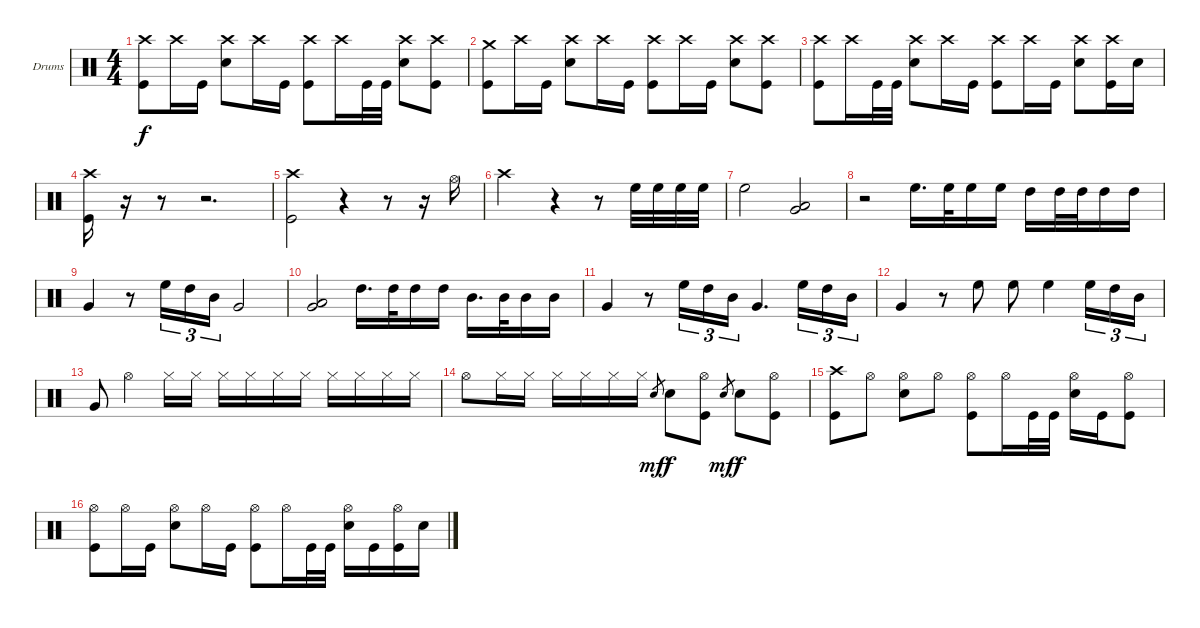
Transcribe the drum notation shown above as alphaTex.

\bracketExtendMode groupsimilarinstruments
\firstSystemTrackNameOrientation horizontal
\otherSystemsTrackNameOrientation horizontal
\track ("Drumkit" "Drums") {instrument percussion}
\staff {score}
\articulation defaults
\ts (4 4)
\tempo (80 hide)
\clef neutral
\ks c
("Crash high (hit)" "Kick (hit)").8{dy f} "Crash high (hit)".16 "Kick (hit)".16 ("Crash high (hit)" "Snare (hit) 2").8 "Crash high (hit)".16 "Kick (hit)".16 ("Crash high (hit)" "Kick (hit)").8 "Crash high (hit)".16 "Kick (hit)".32 "Kick (hit)".32 ("Crash high (hit)" "Snare (hit) 2").8 ("Crash high (hit)" "Kick (hit)").8 |
("Crash medium (hit)" "Kick (hit)").8 "Crash high (hit)".16 "Kick (hit)".16 ("Crash high (hit)" "Snare (hit) 2").8 "Crash high (hit)".16 "Kick (hit)".16 ("Crash high (hit)" "Kick (hit)").8 "Crash high (hit)".16 "Kick (hit)".16 ("Crash high (hit)" "Snare (hit) 2").8 ("Crash high (hit)" "Kick (hit)").8 |
("Crash high (hit)" "Kick (hit)").8 "Crash high (hit)".16 "Kick (hit)".32 "Kick (hit)".32 ("Crash high (hit)" "Snare (hit) 2").8 "Crash high (hit)".16 "Kick (hit)".16 ("Crash high (hit)" "Kick (hit)").8 "Crash high (hit)".16 "Kick (hit)".16 ("Crash high (hit)" "Snare (hit) 2").8 ("Crash high (hit)" "Kick (hit)").16 "Snare (hit) 2".16 |
("Crash high (hit)" "Kick (hit)").16 r.16 r.8 r.2{d} |
("Crash high (hit)" "Kick (hit)").2 r.4 r.8 r.16 "Hi-Hat (open)".16 |
"Crash high (hit)".2 r.4 r.8 "High Floor Tom (hit)".32 "High Floor Tom (hit)".32 "High Floor Tom (hit)".32 "High Floor Tom (hit)".32 |
"High Floor Tom (hit)".2 ("Low Tom (hit)" "Very Low Tom (hit)").2 |
r.2 "High Floor Tom (hit)".16{d} "High Floor Tom (hit)".32 "High Floor Tom (hit)".16 "High Floor Tom (hit)".16 "High Tom (hit)".16 "High Tom (hit)".32 "High Tom (hit)".32 "High Tom (hit)".16 "High Tom (hit)".16 |
"Very Low Tom (hit)".4 r.8 "High Floor Tom (hit)".16{tu (3 2)} "High Tom (hit)".16{tu (3 2)} "Mid Tom (hit)".16{tu (3 2)} "Very Low Tom (hit)".2 |
("Low Tom (hit)" "Very Low Tom (hit)").2 "High Tom (hit)".16{d} "High Tom (hit)".32 "High Tom (hit)".16 "High Tom (hit)".16 "Mid Tom (hit)".16{d} "Mid Tom (hit)".32 "Mid Tom (hit)".16 "Mid Tom (hit)".16 |
"Very Low Tom (hit)".4 r.8 "High Floor Tom (hit)".16{tu (3 2)} "High Tom (hit)".16{tu (3 2)} "Mid Tom (hit)".16{tu (3 2)} "Very Low Tom (hit)".4{d} "High Floor Tom (hit)".16{tu (3 2)} "High Tom (hit)".16{tu (3 2)} "Mid Tom (hit)".16{tu (3 2)} |
"Very Low Tom (hit)".4 r.8 "High Floor Tom (hit)".8 "High Floor Tom (hit)".8 "High Floor Tom (hit)".4 "High Floor Tom (hit)".16{tu (3 2)} "High Tom (hit)".16{tu (3 2)} "Mid Tom (hit)".16{tu (3 2)} |
"Very Low Tom (hit)".8 "Hi-Hat (open)".4 "Hi-Hat (closed)".16 "Hi-Hat (closed)".16 "Hi-Hat (closed)".16 "Hi-Hat (closed)".16 "Hi-Hat (closed)".16 "Hi-Hat (closed)".16 "Hi-Hat (closed)".16 "Hi-Hat (closed)".16 "Hi-Hat (closed)".16 "Hi-Hat (closed)".16 |
"Hi-Hat (open)".8 "Hi-Hat (closed)".16 "Hi-Hat (closed)".16 "Hi-Hat (closed)".16 "Hi-Hat (closed)".16 "Hi-Hat (closed)".16 "Hi-Hat (closed)".16 "Snare (hit) 2".8{gr dy mf} "Snare (hit) 2".8{dy f} ("Hi-Hat (open)" "Kick (hit)").8 "Snare (hit) 2".8{gr dy mf} "Snare (hit) 2".8{dy f} ("Hi-Hat (open)" "Kick (hit)").8 |
("Crash high (hit)" "Kick (hit)").8 "Hi-Hat (open)".8 ("Hi-Hat (open)" "Snare (hit) 2").8 "Hi-Hat (open)".8 ("Hi-Hat (open)" "Kick (hit)").8 "Hi-Hat (open)".16 "Kick (hit)".32 "Kick (hit)".32 ("Hi-Hat (open)" "Snare (hit) 2").16 "Kick (hit)".16 ("Hi-Hat (open)" "Kick (hit)").8 |
("Hi-Hat (open)" "Kick (hit)").8 "Hi-Hat (open)".16 "Kick (hit)".16 ("Hi-Hat (open)" "Snare (hit) 2").8 "Hi-Hat (open)".16 "Kick (hit)".16 ("Hi-Hat (open)" "Kick (hit)").8 "Hi-Hat (open)".16 "Kick (hit)".32 "Kick (hit)".32 ("Hi-Hat (open)" "Snare (hit) 2").16 "Kick (hit)".16 ("Hi-Hat (open)" "Kick (hit)").16 "Snare (hit) 2".16
